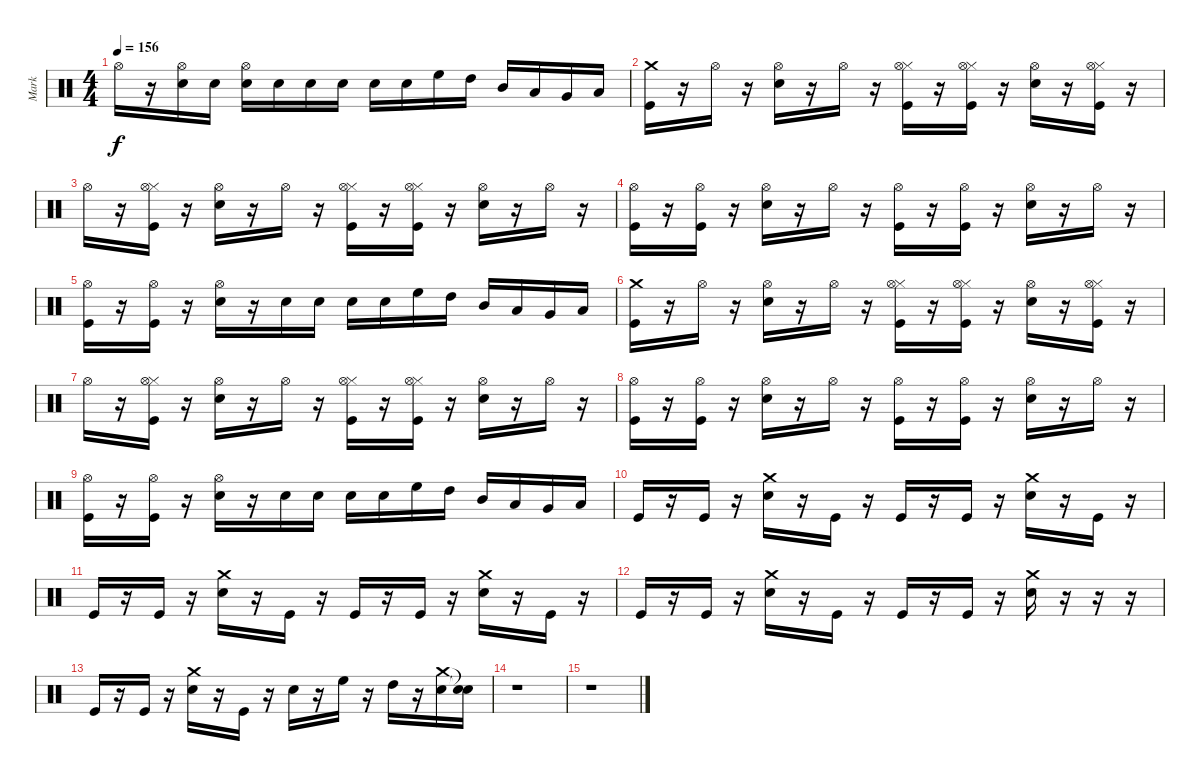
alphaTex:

\track ("Mark" "Mark") {instrument percussion}
\staff {score}
\articulation defaults
\ts (4 4)
\tempo 156
\clef neutral
\ks c "Hi-Hat (open)".16{dy f}
r.16 ("Snare (hit) 2" "Hi-Hat (open)").16 "Snare (hit) 2".16 ("Snare (hit) 2" "Hi-Hat (open)").16 "Snare (hit) 2".16 "Snare (hit) 2".16 "Snare (hit) 2".16 "Snare (hit) 2".16 "Snare (hit) 2".16 "High Floor Tom (hit)".16 "High Tom (hit)".16 "Mid Tom (hit)".16 "Low Tom (hit)".16 "Very Low Tom (hit)".16 "Low Floor Tom (hit)".16 |
("Kick (hit)" "Crash medium (hit)").16 r.16 "Hi-Hat (open)".16 r.16 ("Hi-Hat (open)" "Snare (hit) 2").16 r.16 "Hi-Hat (open)".16 r.16 ("Kick (hit)" "Hi-Hat (closed)" "Hi-Hat (open)").16 r.16 ("Kick (hit)" "Hi-Hat (closed)" "Hi-Hat (open)").16 r.16 ("Hi-Hat (open)" "Snare (hit) 2").16 r.16 ("Kick (hit)" "Hi-Hat (closed)" "Hi-Hat (open)").16 r.16 |
"Hi-Hat (open)".16 r.16 ("Kick (hit)" "Hi-Hat (closed)" "Hi-Hat (open)").16 r.16 ("Hi-Hat (open)" "Snare (hit) 2").16 r.16 "Hi-Hat (open)".16 r.16 ("Kick (hit)" "Hi-Hat (closed)" "Hi-Hat (open)").16 r.16 ("Kick (hit)" "Hi-Hat (closed)" "Hi-Hat (open)").16 r.16 ("Hi-Hat (open)" "Snare (hit) 2").16 r.16 "Hi-Hat (open)".16 r.16 |
("Kick (hit)" "Hi-Hat (open)").16 r.16 ("Kick (hit)" "Hi-Hat (open)").16 r.16 ("Snare (hit) 2" "Hi-Hat (open)").16 r.16 "Hi-Hat (open)".16 r.16 ("Kick (hit)" "Hi-Hat (open)").16 r.16 ("Kick (hit)" "Hi-Hat (open)").16 r.16 ("Snare (hit) 2" "Hi-Hat (open)").16 r.16 "Hi-Hat (open)".16 r.16 |
("Kick (hit)" "Hi-Hat (open)").16 r.16 ("Kick (hit)" "Hi-Hat (open)").16 r.16 ("Snare (hit) 2" "Hi-Hat (open)").16 r.16 "Snare (hit) 2".16 "Snare (hit) 2".16 "Snare (hit) 2".16 "Snare (hit) 2".16 "High Floor Tom (hit)".16 "High Tom (hit)".16 "Mid Tom (hit)".16 "Low Tom (hit)".16 "Very Low Tom (hit)".16 "Low Floor Tom (hit)".16 |
("Kick (hit)" "Crash medium (hit)").16 r.16 "Hi-Hat (open)".16 r.16 ("Hi-Hat (open)" "Snare (hit) 2").16 r.16 "Hi-Hat (open)".16 r.16 ("Kick (hit)" "Hi-Hat (closed)" "Hi-Hat (open)").16 r.16 ("Kick (hit)" "Hi-Hat (closed)" "Hi-Hat (open)").16 r.16 ("Hi-Hat (open)" "Snare (hit) 2").16 r.16 ("Kick (hit)" "Hi-Hat (closed)" "Hi-Hat (open)").16 r.16 |
"Hi-Hat (open)".16 r.16 ("Kick (hit)" "Hi-Hat (closed)" "Hi-Hat (open)").16 r.16 ("Hi-Hat (open)" "Snare (hit) 2").16 r.16 "Hi-Hat (open)".16 r.16 ("Kick (hit)" "Hi-Hat (closed)" "Hi-Hat (open)").16 r.16 ("Kick (hit)" "Hi-Hat (closed)" "Hi-Hat (open)").16 r.16 ("Hi-Hat (open)" "Snare (hit) 2").16 r.16 "Hi-Hat (open)".16 r.16 |
("Kick (hit)" "Hi-Hat (open)").16 r.16 ("Kick (hit)" "Hi-Hat (open)").16 r.16 ("Snare (hit) 2" "Hi-Hat (open)").16 r.16 "Hi-Hat (open)".16 r.16 ("Kick (hit)" "Hi-Hat (open)").16 r.16 ("Kick (hit)" "Hi-Hat (open)").16 r.16 ("Snare (hit) 2" "Hi-Hat (open)").16 r.16 "Hi-Hat (open)".16 r.16 |
("Kick (hit)" "Hi-Hat (open)").16 r.16 ("Kick (hit)" "Hi-Hat (open)").16 r.16 ("Snare (hit) 2" "Hi-Hat (open)").16 r.16 "Snare (hit) 2".16 "Snare (hit) 2".16 "Snare (hit) 2".16 "Snare (hit) 2".16 "High Floor Tom (hit)".16 "High Tom (hit)".16 "Mid Tom (hit)".16 "Low Tom (hit)".16 "Very Low Tom (hit)".16 "Low Floor Tom (hit)".16 |
"Kick (hit)".16 r.16 "Kick (hit)".16 r.16 ("Snare (hit) 2" "Crash medium (hit)").16 r.16 "Kick (hit)".16 r.16 "Kick (hit)".16 r.16 "Kick (hit)".16 r.16 ("Snare (hit) 2" "Crash medium (hit)").16 r.16 "Kick (hit)".16 r.16 |
"Kick (hit)".16 r.16 "Kick (hit)".16 r.16 ("Snare (hit) 2" "Crash medium (hit)").16 r.16 "Kick (hit)".16 r.16 "Kick (hit)".16 r.16 "Kick (hit)".16 r.16 ("Snare (hit) 2" "Crash medium (hit)").16 r.16 "Kick (hit)".16 r.16 |
"Kick (hit)".16 r.16 "Kick (hit)".16 r.16 ("Snare (hit) 2" "Crash medium (hit)").16 r.16 "Kick (hit)".16 r.16 "Kick (hit)".16 r.16 "Kick (hit)".16 r.16 ("Snare (hit) 2" "Crash medium (hit)").16 r.16 r.16 r.16 |
"Kick (hit)".16 r.16 "Kick (hit)".16 r.16 ("Snare (hit) 2" "Crash medium (hit)").16 r.16 "Kick (hit)".16 r.16 "Snare (hit) 2".16 r.16 "High Floor Tom (hit)".16 r.16 "High Tom (hit)".16 r.16 ("Snare (hit) 2" "Crash medium (hit)").16 ("Snare (hit)"{t} "Snare (hit)"{t}).16 |
r.1 |
r.1
